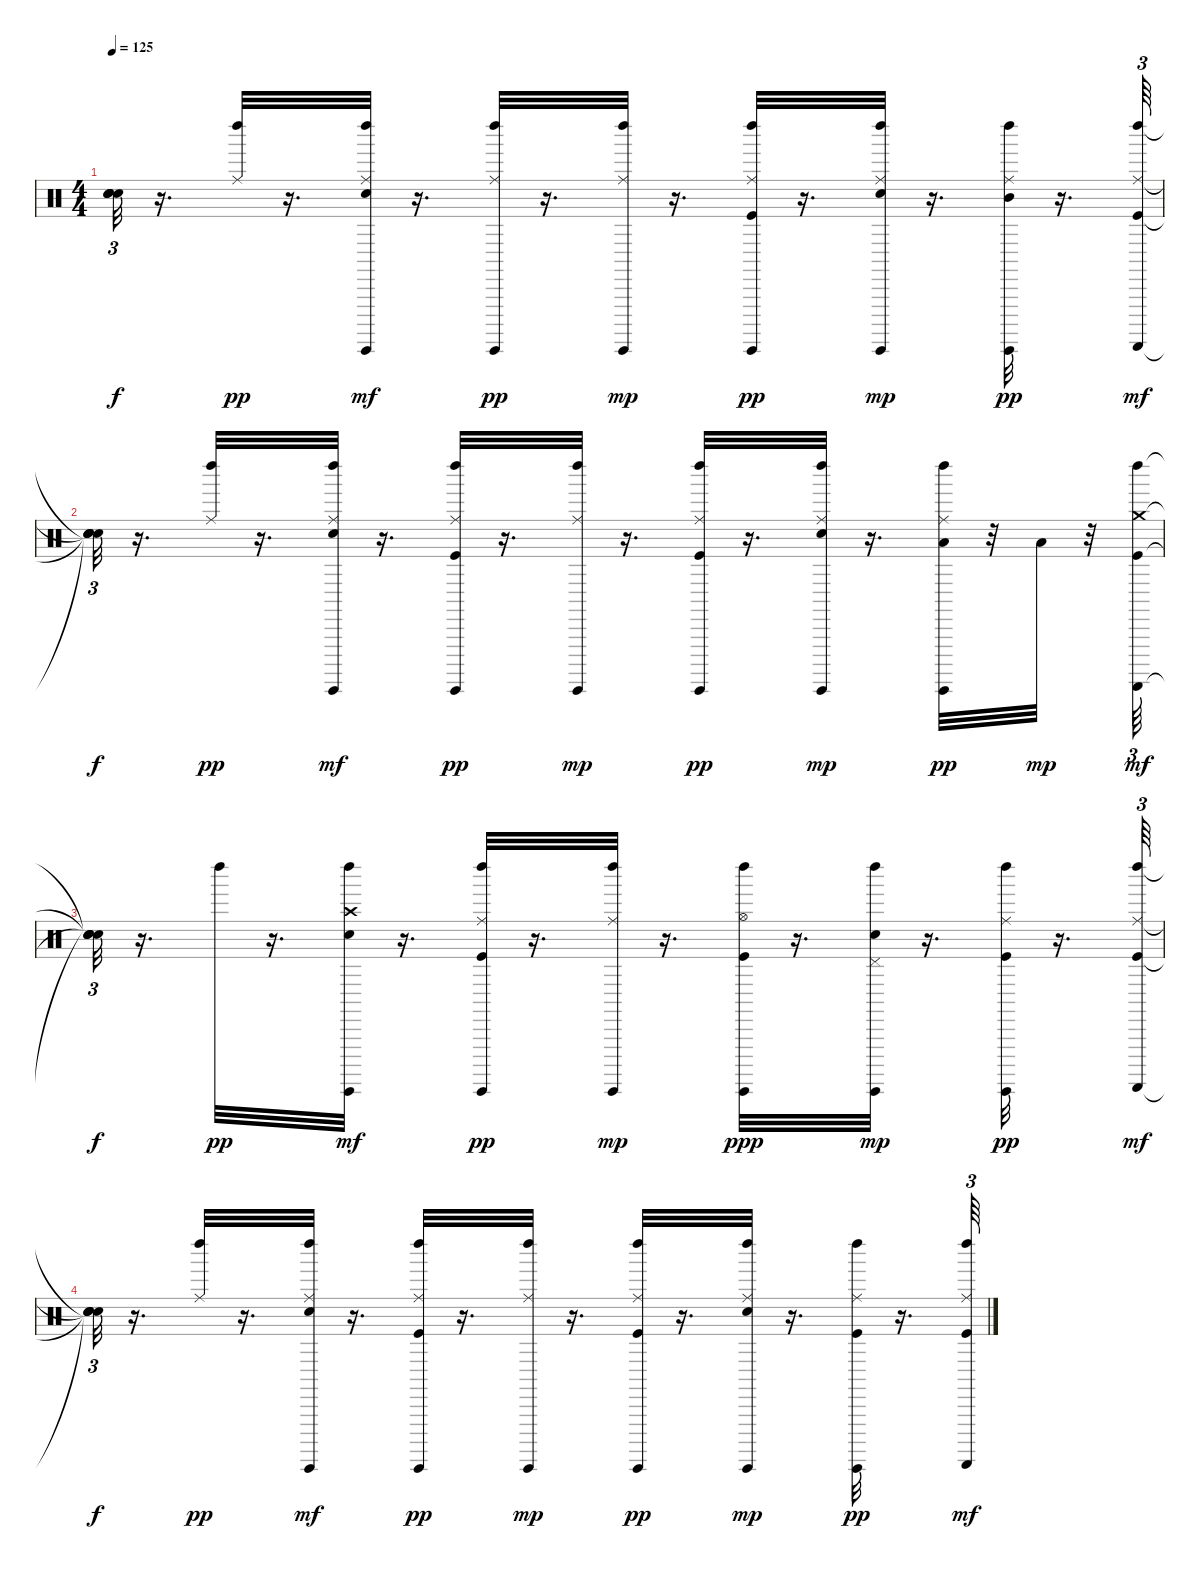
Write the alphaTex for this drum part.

\track "" {instrument percussion}
\staff {score}
\articulation defaults
\ts (4 4)
\tempo 125
\clef neutral
\ks c
("Snare (hit)"{t} "Snare (hit)"{t} "Snare (hit)"{t} "Snare (hit)"{t}).32{tu (3 2) dy f} r.16{d} ("Left Maraca (hit)" "Ride (middle)").32{dy pp} r.16{d} ("Electric Snare (hit)" "Left Maraca (hit)" "Ride (middle)" "Guiro (hit)").32{dy mf} r.16{d} ("Left Maraca (hit)" "Ride (middle)" "Guiro (hit)").32{dy pp} r.16{d} ("Left Maraca (hit)" "Ride (middle)" "Guiro (hit)").32{dy mp} r.16{d} ("Ride (middle)" "Kick (hit)" "Left Maraca (hit)" "Guiro (hit)").32{dy pp} r.16{d} ("Left Maraca (hit)" "Ride (middle)" "Electric Snare (hit)" "Guiro (hit)").32{dy mp} r.16{d} ("Mid Tom (hit)" "Ride (middle)" "Left Maraca (hit)" "Guiro (hit)").32{dy pp} r.16{d} ("Ride (middle)" "Left Maraca (hit)" "Kick (hit)" "Guiro (scrap-return)").64{tu (3 2) dy mf} |
("Snare (hit)"{t} "Snare (hit)"{t} "Snare (hit)"{t} "Snare (hit)"{t}).32{tu (3 2) dy f} r.16{d} ("Ride (middle)" "Left Maraca (hit)").32{dy pp} r.16{d} ("Ride (middle)" "Left Maraca (hit)" "Electric Snare (hit)" "Guiro (hit)").32{dy mf} r.16{d} ("Ride (middle)" "Left Maraca (hit)" "Kick (hit)" "Guiro (hit)").32{dy pp} r.16{d} ("Left Maraca (hit)" "Ride (middle)" "Guiro (hit)").32{dy mp} r.16{d} ("Left Maraca (hit)" "Ride (middle)" "Kick (hit)" "Guiro (hit)").32{dy pp} r.16{d} ("Electric Snare (hit)" "Left Maraca (hit)" "Ride (middle)" "Guiro (hit)").32{dy mp} r.16{d} ("Left Maraca (hit)" "Ride (middle)" "Low Tom (hit)" "Guiro (hit)").32{dy pp} r.32 "Low Tom (hit)".32{dy mp} r.32 ("Crash medium (hit)" "Left Maraca (hit)" "Kick (hit)" "Guiro (scrap-return)").64{tu (3 2) dy mf} |
("Snare (hit)"{t} "Snare (hit)"{t} "Snare (hit)"{t} "Snare (hit)"{t}).32{tu (3 2) dy f} r.16{d} "Left Maraca (hit)".32{dy pp} r.16{d} ("Electric Snare (hit)" "Left Maraca (hit)" "Crash high (hit)" "Guiro (hit)").32{dy mf} r.16{d} ("Ride (middle)" "Left Maraca (hit)" "Kick (hit)" "Guiro (hit)").32{dy pp} r.16{d} ("Left Maraca (hit)" "Ride (middle)" "Guiro (hit)").32{dy mp} r.16{d} ("Kick (hit)" "Hi-Hat (open)" "Left Maraca (hit)" "Guiro (hit)").32{dy ppp} r.16{d} ("Left Maraca (hit)" "Pedal Hi-Hat (hit)" "Electric Snare (hit)" "Guiro (hit)").32{dy mp} r.16{d} ("Kick (hit)" "Ride (middle)" "Left Maraca (hit)" "Guiro (hit)").32{dy pp} r.16{d} ("Ride (middle)" "Left Maraca (hit)" "Kick (hit)" "Guiro (scrap-return)").64{tu (3 2) dy mf} |
("Snare (hit)"{t} "Snare (hit)"{t} "Snare (hit)"{t} "Snare (hit)"{t}).32{tu (3 2) dy f} r.16{d} ("Left Maraca (hit)" "Ride (middle)").32{dy pp} r.16{d} ("Electric Snare (hit)" "Left Maraca (hit)" "Ride (middle)" "Guiro (hit)").32{dy mf} r.16{d} ("Ride (middle)" "Kick (hit)" "Left Maraca (hit)" "Guiro (hit)").32{dy pp} r.16{d} ("Left Maraca (hit)" "Ride (middle)" "Guiro (hit)").32{dy mp} r.16{d} ("Ride (middle)" "Kick (hit)" "Left Maraca (hit)" "Guiro (hit)").32{dy pp} r.16{d} ("Electric Snare (hit)" "Left Maraca (hit)" "Ride (middle)" "Guiro (hit)").32{dy mp} r.16{d} ("Kick (hit)" "Ride (middle)" "Left Maraca (hit)" "Guiro (hit)").32{dy pp} r.16{d} ("Ride (middle)" "Left Maraca (hit)" "Kick (hit)" "Guiro (scrap-return)").64{tu (3 2) dy mf}
